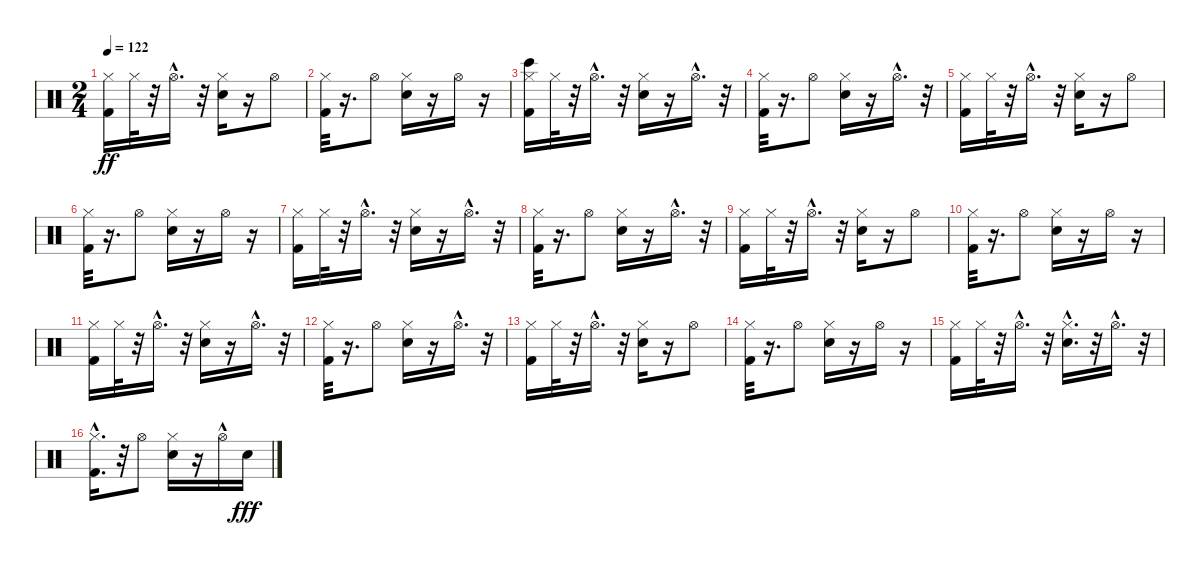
\track "" {instrument percussion}
\staff {score}
\articulation defaults
\ts (2 4)
\tempo 122
\clef neutral
\ks c
("Kick (hit) 2" "Hi-Hat (closed)").16{dy ff} "Hi-Hat (closed)".32 r.32 "Hi-Hat (open)"{hac}.16{d} r.32 ("Snare (hit) 2" "Hi-Hat (closed)").16 r.16 "Hi-Hat (open)".8 |
("Kick (hit) 2" "Hi-Hat (closed)").32 r.16{d} "Hi-Hat (open)".8 ("Snare (hit) 2" "Hi-Hat (closed)").16 r.16 "Hi-Hat (open)".16 r.16 |
("Kick (hit) 2" "Bongo High (hit)" "Hi-Hat (closed)").16 "Hi-Hat (closed)".32 r.32 "Hi-Hat (open)"{hac}.16{d} r.32 ("Snare (hit) 2" "Hi-Hat (closed)").16 r.16 "Hi-Hat (open)"{hac}.16{d} r.32 |
("Kick (hit) 2" "Hi-Hat (closed)").32 r.16{d} "Hi-Hat (open)".8 ("Snare (hit) 2" "Hi-Hat (closed)").16 r.16 "Hi-Hat (open)"{hac}.16{d} r.32 |
("Kick (hit) 2" "Hi-Hat (closed)").16 "Hi-Hat (closed)".32 r.32 "Hi-Hat (open)"{hac}.16{d} r.32 ("Snare (hit) 2" "Hi-Hat (closed)").16 r.16 "Hi-Hat (open)".8 |
("Kick (hit) 2" "Hi-Hat (closed)").32 r.16{d} "Hi-Hat (open)".8 ("Snare (hit) 2" "Hi-Hat (closed)").16 r.16 "Hi-Hat (open)".16 r.16 |
("Kick (hit) 2" "Hi-Hat (closed)").16 "Hi-Hat (closed)".32 r.32 "Hi-Hat (open)"{hac}.16{d} r.32 ("Snare (hit) 2" "Hi-Hat (closed)").16 r.16 "Hi-Hat (open)"{hac}.16{d} r.32 |
("Kick (hit) 2" "Hi-Hat (closed)").32 r.16{d} "Hi-Hat (open)".8 ("Snare (hit) 2" "Hi-Hat (closed)").16 r.16 "Hi-Hat (open)"{hac}.16{d} r.32 |
("Kick (hit) 2" "Hi-Hat (closed)").16 "Hi-Hat (closed)".32 r.32 "Hi-Hat (open)"{hac}.16{d} r.32 ("Snare (hit) 2" "Hi-Hat (closed)").16 r.16 "Hi-Hat (open)".8 |
("Kick (hit) 2" "Hi-Hat (closed)").32 r.16{d} "Hi-Hat (open)".8 ("Snare (hit) 2" "Hi-Hat (closed)").16 r.16 "Hi-Hat (open)".16 r.16 |
("Kick (hit) 2" "Hi-Hat (closed)").16 "Hi-Hat (closed)".32 r.32 "Hi-Hat (open)"{hac}.16{d} r.32 ("Snare (hit) 2" "Hi-Hat (closed)").16 r.16 "Hi-Hat (open)"{hac}.16{d} r.32 |
("Kick (hit) 2" "Hi-Hat (closed)").32 r.16{d} "Hi-Hat (open)".8 ("Snare (hit) 2" "Hi-Hat (closed)").16 r.16 "Hi-Hat (open)"{hac}.16{d} r.32 |
("Kick (hit) 2" "Hi-Hat (closed)").16 "Hi-Hat (closed)".32 r.32 "Hi-Hat (open)"{hac}.16{d} r.32 ("Snare (hit) 2" "Hi-Hat (closed)").16 r.16 "Hi-Hat (open)".8 |
("Kick (hit) 2" "Hi-Hat (closed)").32 r.16{d} "Hi-Hat (open)".8 ("Snare (hit) 2" "Hi-Hat (closed)").16 r.16 "Hi-Hat (open)".16 r.16 |
("Kick (hit) 2" "Hi-Hat (closed)").16 "Hi-Hat (closed)".32 r.32 "Hi-Hat (open)"{hac}.16{d} r.32 ("Snare (hit) 2"{hac} "Hi-Hat (closed)").16{d} r.32 "Hi-Hat (open)"{hac}.16{d} r.32 |
("Kick (hit) 2"{hac} "Hi-Hat (closed)").16{d} r.32 "Hi-Hat (open)".8 ("Snare (hit) 2" "Hi-Hat (closed)").16 r.16 "Hi-Hat (open)"{hac}.16 "Snare (hit) 2".16{dy fff}
